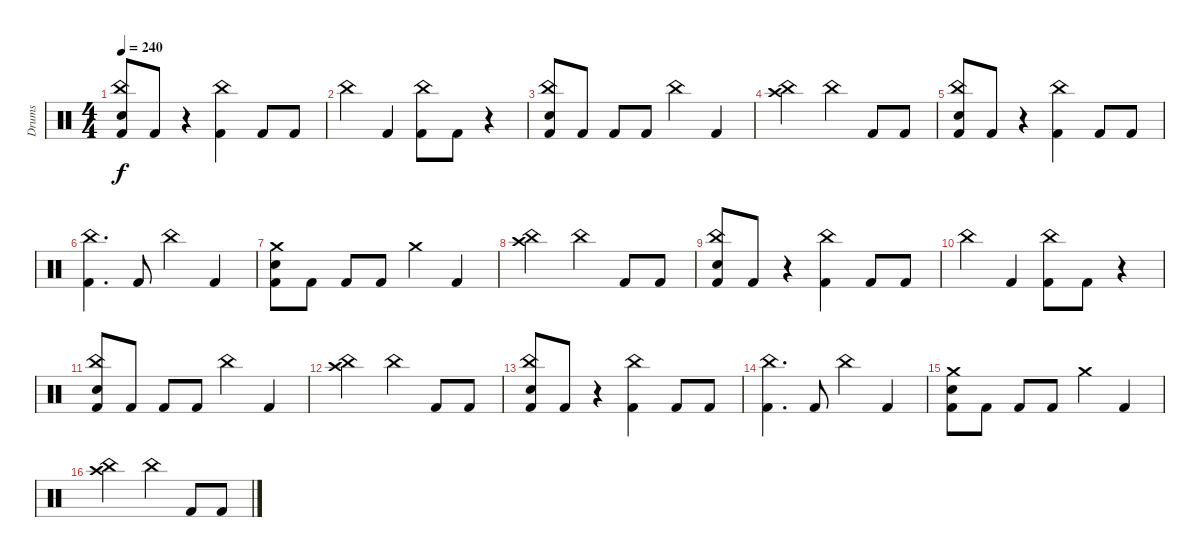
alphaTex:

\track ("Drums" "Drums") {instrument percussion}
\staff {score}
\articulation defaults
\ts (4 4)
\tempo 240
\clef neutral
\ks c
("Snare (hit) 2" "China (hit)" "Kick (hit) 2").8{dy f} "Kick (hit) 2".8 r.4 ("China (hit)" "Kick (hit) 2").4 "Kick (hit) 2".8 "Kick (hit) 2".8 |
"China (hit)".4 "Kick (hit) 2".4 ("China (hit)" "Kick (hit) 2").8 "Kick (hit) 2".8 r.4 |
("Snare (hit) 2" "China (hit)" "Kick (hit) 2").8 "Kick (hit) 2".8 "Kick (hit) 2".8 "Kick (hit) 2".8 "China (hit)".4 "Kick (hit) 2".4 |
("China (hit)" "Crash high (hit)").2 "China (hit)".4 "Kick (hit) 2".8 "Kick (hit) 2".8 |
("Snare (hit) 2" "China (hit)" "Kick (hit) 2").8 "Kick (hit) 2".8 r.4 ("China (hit)" "Kick (hit) 2").4 "Kick (hit) 2".8 "Kick (hit) 2".8 |
("China (hit)" "Kick (hit) 2").4{d} "Kick (hit) 2".8 "China (hit)".4 "Kick (hit) 2".4 |
("Snare (hit) 2" "Crash medium (hit)" "Kick (hit) 2").8 "Kick (hit) 2".8 "Kick (hit) 2".8 "Kick (hit) 2".8 "Crash medium (hit)".4 "Kick (hit) 2".4 |
("China (hit)" "Crash high (hit)").2 "China (hit)".4 "Kick (hit) 2".8 "Kick (hit) 2".8 |
("Snare (hit) 2" "China (hit)" "Kick (hit) 2").8 "Kick (hit) 2".8 r.4 ("China (hit)" "Kick (hit) 2").4 "Kick (hit) 2".8 "Kick (hit) 2".8 |
"China (hit)".4 "Kick (hit) 2".4 ("China (hit)" "Kick (hit) 2").8 "Kick (hit) 2".8 r.4 |
("Snare (hit) 2" "China (hit)" "Kick (hit) 2").8 "Kick (hit) 2".8 "Kick (hit) 2".8 "Kick (hit) 2".8 "China (hit)".4 "Kick (hit) 2".4 |
("China (hit)" "Crash high (hit)").2 "China (hit)".4 "Kick (hit) 2".8 "Kick (hit) 2".8 |
("Snare (hit) 2" "China (hit)" "Kick (hit) 2").8 "Kick (hit) 2".8 r.4 ("China (hit)" "Kick (hit) 2").4 "Kick (hit) 2".8 "Kick (hit) 2".8 |
("China (hit)" "Kick (hit) 2").4{d} "Kick (hit) 2".8 "China (hit)".4 "Kick (hit) 2".4 |
("Snare (hit) 2" "Crash medium (hit)" "Kick (hit) 2").8 "Kick (hit) 2".8 "Kick (hit) 2".8 "Kick (hit) 2".8 "Crash medium (hit)".4 "Kick (hit) 2".4 |
("China (hit)" "Crash high (hit)").2 "China (hit)".4 "Kick (hit) 2".8 "Kick (hit) 2".8
